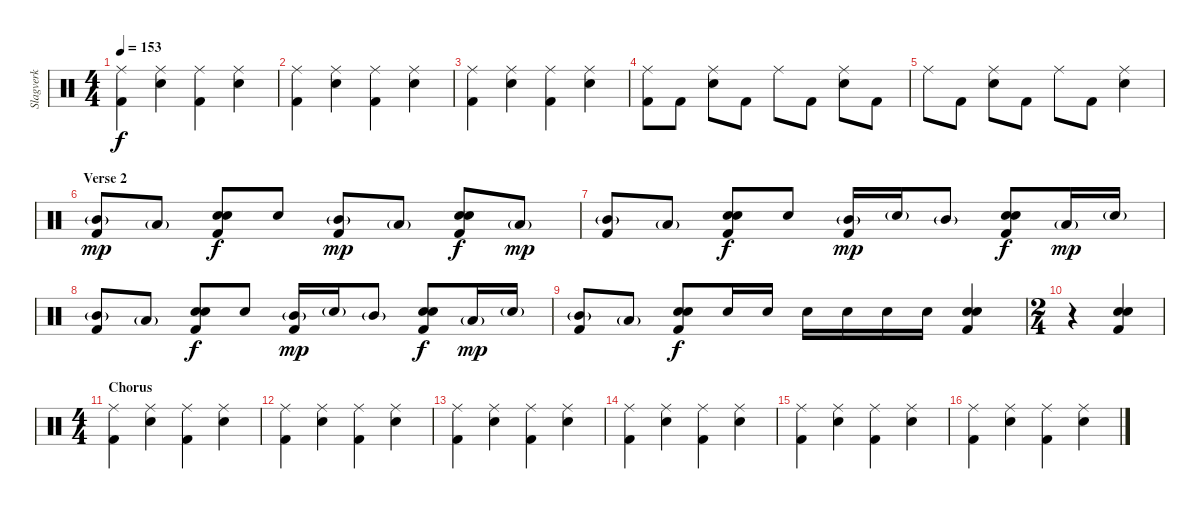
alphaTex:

\track ("Slagverk" "Slagverk") {instrument percussion}
\staff {score}
\articulation defaults
\ts (4 4)
\tempo 153
\clef neutral
\ks c
("Ride (middle)" "Kick (hit) 2").4{dy f} ("Ride (middle)" "Electric Snare (hit)").4 ("Ride (middle)" "Kick (hit) 2").4 ("Ride (middle)" "Electric Snare (hit)").4 |
("Ride (middle)" "Kick (hit) 2").4 ("Ride (middle)" "Electric Snare (hit)").4 ("Ride (middle)" "Kick (hit) 2").4 ("Ride (middle)" "Electric Snare (hit)").4 |
("Ride (middle)" "Kick (hit) 2").4 ("Ride (middle)" "Electric Snare (hit)").4 ("Ride (middle)" "Kick (hit) 2").4 ("Ride (middle)" "Electric Snare (hit)").4 |
("Ride (middle)" "Kick (hit) 2").8 "Kick (hit) 2".8 ("Ride (middle)" "Electric Snare (hit)").8 "Kick (hit) 2".8 "Ride (middle)".8 "Kick (hit) 2".8 ("Ride (middle)" "Electric Snare (hit)").8 "Kick (hit) 2".8 |
"Ride (middle)".8 "Kick (hit) 2".8 ("Ride (middle)" "Electric Snare (hit)").8 "Kick (hit) 2".8 "Ride (middle)".8 "Kick (hit) 2".8 ("Ride (middle)" "Electric Snare (hit)").4 |
\section ("" "Verse 2")
("Mid Tom (hit)"{g} "Kick (hit) 2").8{dy mp} "Low Tom (hit)"{g}.8 ("Hand Clap (hit)" "Electric Snare (hit)" "Kick (hit) 2").8{dy f} "Electric Snare (hit)".8 ("Mid Tom (hit)"{g} "Kick (hit) 2").8{dy mp} "Low Tom (hit)"{g}.8 ("Hand Clap (hit)" "Electric Snare (hit)" "Kick (hit) 2").8{dy f} "Low Tom (hit)"{g}.8{dy mp} |
("Mid Tom (hit)"{g} "Kick (hit) 2").8 "Low Tom (hit)"{g}.8 ("Hand Clap (hit)" "Electric Snare (hit)" "Kick (hit) 2").8{dy f} "Electric Snare (hit)".8 ("Mid Tom (hit)"{g} "Kick (hit) 2").16{dy mp} "Electric Snare (hit)"{g}.16 "Mid Tom (hit)"{g}.8 ("Hand Clap (hit)" "Electric Snare (hit)" "Kick (hit) 2").8{dy f} "Low Tom (hit)"{g}.16{dy mp} "Electric Snare (hit)"{g}.16 |
("Mid Tom (hit)"{g} "Kick (hit) 2").8 "Low Tom (hit)"{g}.8 ("Hand Clap (hit)" "Electric Snare (hit)" "Kick (hit) 2").8{dy f} "Electric Snare (hit)".8 ("Mid Tom (hit)"{g} "Kick (hit) 2").16{dy mp} "Electric Snare (hit)"{g}.16 "Mid Tom (hit)"{g}.8 ("Hand Clap (hit)" "Electric Snare (hit)" "Kick (hit) 2").8{dy f} "Low Tom (hit)"{g}.16{dy mp} "Electric Snare (hit)"{g}.16 |
("Mid Tom (hit)"{g} "Kick (hit) 2").8 "Low Tom (hit)"{g}.8 ("Hand Clap (hit)" "Electric Snare (hit)" "Kick (hit) 2").8{dy f} "Electric Snare (hit)".16 "Electric Snare (hit)".16 "Electric Snare (hit)".16 "Electric Snare (hit)".16 "Electric Snare (hit)".16 "Electric Snare (hit)".16 ("Hand Clap (hit)" "Electric Snare (hit)" "Kick (hit) 2").4 |
\ts (2 4)
r.4 ("Hand Clap (hit)" "Electric Snare (hit)" "Kick (hit) 2").4 |
\ts (4 4)
\section ("" "Chorus")
("Ride (middle)" "Kick (hit) 2").4 ("Ride (middle)" "Electric Snare (hit)").4 ("Ride (middle)" "Kick (hit) 2").4 ("Ride (middle)" "Electric Snare (hit)").4 |
("Ride (middle)" "Kick (hit) 2").4 ("Ride (middle)" "Electric Snare (hit)").4 ("Ride (middle)" "Kick (hit) 2").4 ("Ride (middle)" "Electric Snare (hit)").4 |
("Ride (middle)" "Kick (hit) 2").4 ("Ride (middle)" "Electric Snare (hit)").4 ("Ride (middle)" "Kick (hit) 2").4 ("Ride (middle)" "Electric Snare (hit)").4 |
("Ride (middle)" "Kick (hit) 2").4 ("Ride (middle)" "Electric Snare (hit)").4 ("Ride (middle)" "Kick (hit) 2").4 ("Ride (middle)" "Electric Snare (hit)").4 |
("Ride (middle)" "Kick (hit) 2").4 ("Ride (middle)" "Electric Snare (hit)").4 ("Ride (middle)" "Kick (hit) 2").4 ("Ride (middle)" "Electric Snare (hit)").4 |
("Ride (middle)" "Kick (hit) 2").4 ("Ride (middle)" "Electric Snare (hit)").4 ("Ride (middle)" "Kick (hit) 2").4 ("Ride (middle)" "Electric Snare (hit)").4
